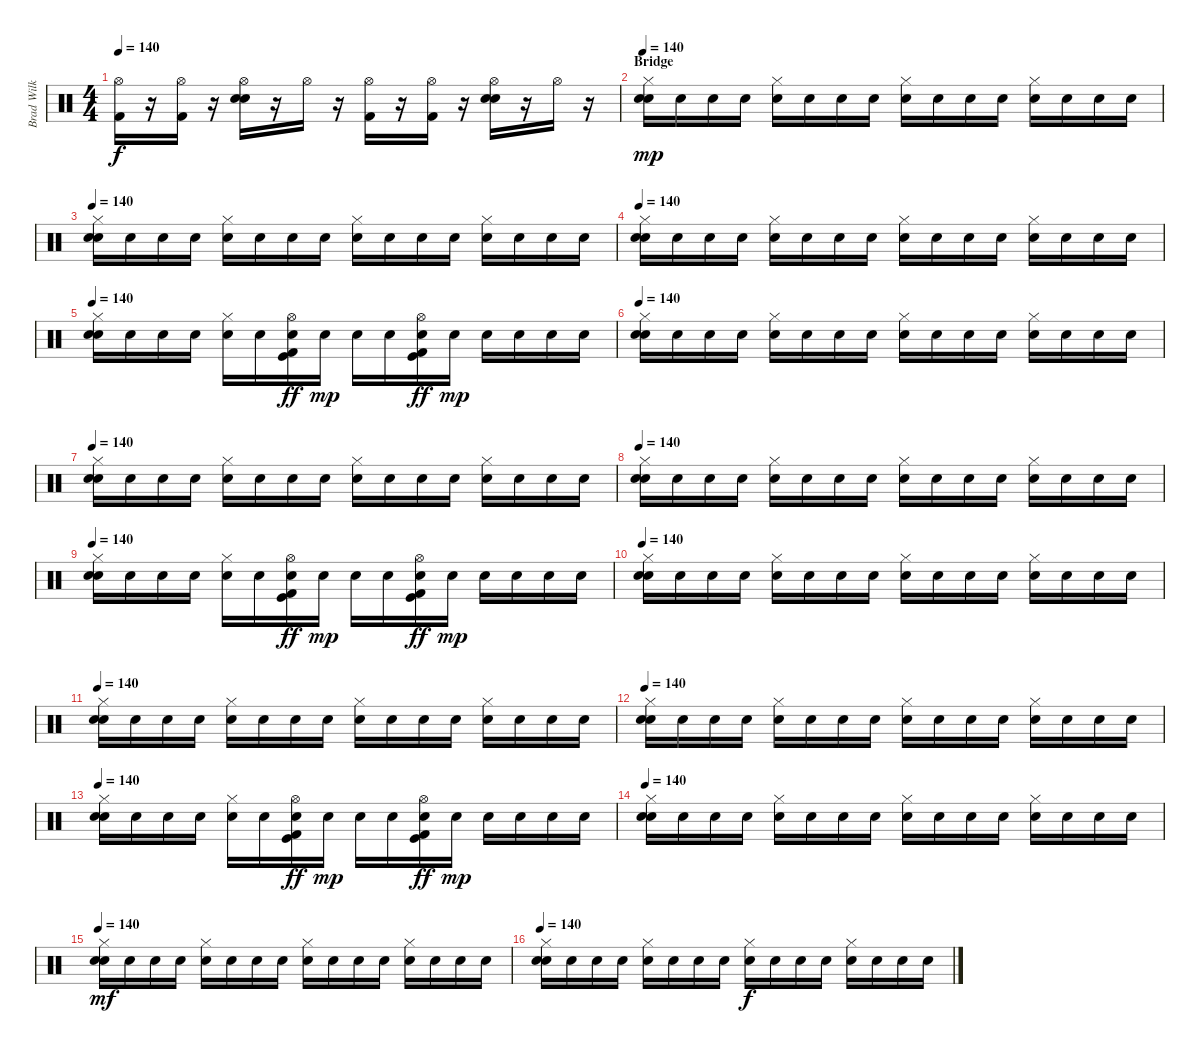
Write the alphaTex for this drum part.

\track ("Brad Wilk" "Brad Wilk") {instrument percussion}
\staff {score}
\articulation defaults
\ts (4 4)
\tempo 140
\clef neutral
\ks c
("Hi-Hat (open)" "Kick (hit) 2").16{dy f} r.16 ("Hi-Hat (open)" "Kick (hit) 2").16 r.16 ("Hi-Hat (open)" "Electric Snare (hit)" "Snare (hit) 2").16 r.16 "Hi-Hat (open)".16 r.16 ("Hi-Hat (open)" "Kick (hit) 2").16 r.16 ("Hi-Hat (open)" "Kick (hit) 2").16 r.16 ("Hi-Hat (open)" "Electric Snare (hit)" "Snare (hit) 2").16 r.16 "Hi-Hat (open)".16 r.16 |
\section ("" "Bridge")
\tempo 140
("Hi-Hat (closed)" "Snare (hit) 2" "Electric Snare (hit)").16{dy mp} "Snare (hit) 2".16 "Snare (hit) 2".16 "Snare (hit) 2".16 ("Hi-Hat (closed)" "Snare (hit) 2").16 "Snare (hit) 2".16 "Snare (hit) 2".16 "Snare (hit) 2".16 ("Hi-Hat (closed)" "Snare (hit) 2").16 "Snare (hit) 2".16 "Snare (hit) 2".16 "Snare (hit) 2".16 ("Hi-Hat (closed)" "Snare (hit) 2").16 "Snare (hit) 2".16 "Snare (hit) 2".16 "Snare (hit) 2".16 |
\tempo 140
("Hi-Hat (closed)" "Snare (hit) 2" "Electric Snare (hit)").16 "Snare (hit) 2".16 "Snare (hit) 2".16 "Snare (hit) 2".16 ("Hi-Hat (closed)" "Snare (hit) 2").16 "Snare (hit) 2".16 "Snare (hit) 2".16 "Snare (hit) 2".16 ("Hi-Hat (closed)" "Snare (hit) 2").16 "Snare (hit) 2".16 "Snare (hit) 2".16 "Snare (hit) 2".16 ("Hi-Hat (closed)" "Snare (hit) 2").16 "Snare (hit) 2".16 "Snare (hit) 2".16 "Snare (hit) 2".16 |
\tempo 140
("Hi-Hat (closed)" "Snare (hit) 2" "Electric Snare (hit)").16 "Snare (hit) 2".16 "Snare (hit) 2".16 "Snare (hit) 2".16 ("Hi-Hat (closed)" "Snare (hit) 2").16 "Snare (hit) 2".16 "Snare (hit) 2".16 "Snare (hit) 2".16 ("Hi-Hat (closed)" "Snare (hit) 2").16 "Snare (hit) 2".16 "Snare (hit) 2".16 "Snare (hit) 2".16 ("Hi-Hat (closed)" "Snare (hit) 2").16 "Snare (hit) 2".16 "Snare (hit) 2".16 "Snare (hit) 2".16 |
\tempo 140
("Hi-Hat (closed)" "Snare (hit) 2" "Electric Snare (hit)").16 "Snare (hit) 2".16 "Snare (hit) 2".16 "Snare (hit) 2".16 ("Hi-Hat (closed)" "Snare (hit) 2").16 "Snare (hit) 2".16 ("Hi-Hat (open)" "Snare (hit) 2" "Kick (hit) 2" "Kick (hit)").16{dy ff} "Snare (hit) 2".16{dy mp} "Snare (hit) 2".16 "Snare (hit) 2".16 ("Hi-Hat (open)" "Snare (hit) 2" "Kick (hit)" "Kick (hit) 2").16{dy ff} "Snare (hit) 2".16{dy mp} "Snare (hit) 2".16 "Snare (hit) 2".16 "Snare (hit) 2".16 "Snare (hit) 2".16 |
\tempo 140
("Hi-Hat (closed)" "Snare (hit) 2" "Electric Snare (hit)").16 "Snare (hit) 2".16 "Snare (hit) 2".16 "Snare (hit) 2".16 ("Hi-Hat (closed)" "Snare (hit) 2").16 "Snare (hit) 2".16 "Snare (hit) 2".16 "Snare (hit) 2".16 ("Hi-Hat (closed)" "Snare (hit) 2").16 "Snare (hit) 2".16 "Snare (hit) 2".16 "Snare (hit) 2".16 ("Hi-Hat (closed)" "Snare (hit) 2").16 "Snare (hit) 2".16 "Snare (hit) 2".16 "Snare (hit) 2".16 |
\tempo 140
("Hi-Hat (closed)" "Snare (hit) 2" "Electric Snare (hit)").16 "Snare (hit) 2".16 "Snare (hit) 2".16 "Snare (hit) 2".16 ("Hi-Hat (closed)" "Snare (hit) 2").16 "Snare (hit) 2".16 "Snare (hit) 2".16 "Snare (hit) 2".16 ("Hi-Hat (closed)" "Snare (hit) 2").16 "Snare (hit) 2".16 "Snare (hit) 2".16 "Snare (hit) 2".16 ("Hi-Hat (closed)" "Snare (hit) 2").16 "Snare (hit) 2".16 "Snare (hit) 2".16 "Snare (hit) 2".16 |
\tempo 140
("Hi-Hat (closed)" "Snare (hit) 2" "Electric Snare (hit)").16 "Snare (hit) 2".16 "Snare (hit) 2".16 "Snare (hit) 2".16 ("Hi-Hat (closed)" "Snare (hit) 2").16 "Snare (hit) 2".16 "Snare (hit) 2".16 "Snare (hit) 2".16 ("Hi-Hat (closed)" "Snare (hit) 2").16 "Snare (hit) 2".16 "Snare (hit) 2".16 "Snare (hit) 2".16 ("Hi-Hat (closed)" "Snare (hit) 2").16 "Snare (hit) 2".16 "Snare (hit) 2".16 "Snare (hit) 2".16 |
\tempo 140
("Hi-Hat (closed)" "Snare (hit) 2" "Electric Snare (hit)").16 "Snare (hit) 2".16 "Snare (hit) 2".16 "Snare (hit) 2".16 ("Hi-Hat (closed)" "Snare (hit) 2").16 "Snare (hit) 2".16 ("Hi-Hat (open)" "Snare (hit) 2" "Kick (hit) 2" "Kick (hit)").16{dy ff} "Snare (hit) 2".16{dy mp} "Snare (hit) 2".16 "Snare (hit) 2".16 ("Hi-Hat (open)" "Snare (hit) 2" "Kick (hit)" "Kick (hit) 2").16{dy ff} "Snare (hit) 2".16{dy mp} "Snare (hit) 2".16 "Snare (hit) 2".16 "Snare (hit) 2".16 "Snare (hit) 2".16 |
\tempo 140
("Hi-Hat (closed)" "Snare (hit) 2" "Electric Snare (hit)").16 "Snare (hit) 2".16 "Snare (hit) 2".16 "Snare (hit) 2".16 ("Hi-Hat (closed)" "Snare (hit) 2").16 "Snare (hit) 2".16 "Snare (hit) 2".16 "Snare (hit) 2".16 ("Hi-Hat (closed)" "Snare (hit) 2").16 "Snare (hit) 2".16 "Snare (hit) 2".16 "Snare (hit) 2".16 ("Hi-Hat (closed)" "Snare (hit) 2").16 "Snare (hit) 2".16 "Snare (hit) 2".16 "Snare (hit) 2".16 |
\tempo 140
("Hi-Hat (closed)" "Snare (hit) 2" "Electric Snare (hit)").16 "Snare (hit) 2".16 "Snare (hit) 2".16 "Snare (hit) 2".16 ("Hi-Hat (closed)" "Snare (hit) 2").16 "Snare (hit) 2".16 "Snare (hit) 2".16 "Snare (hit) 2".16 ("Hi-Hat (closed)" "Snare (hit) 2").16 "Snare (hit) 2".16 "Snare (hit) 2".16 "Snare (hit) 2".16 ("Hi-Hat (closed)" "Snare (hit) 2").16 "Snare (hit) 2".16 "Snare (hit) 2".16 "Snare (hit) 2".16 |
\tempo 140
("Hi-Hat (closed)" "Snare (hit) 2" "Electric Snare (hit)").16 "Snare (hit) 2".16 "Snare (hit) 2".16 "Snare (hit) 2".16 ("Hi-Hat (closed)" "Snare (hit) 2").16 "Snare (hit) 2".16 "Snare (hit) 2".16 "Snare (hit) 2".16 ("Hi-Hat (closed)" "Snare (hit) 2").16 "Snare (hit) 2".16 "Snare (hit) 2".16 "Snare (hit) 2".16 ("Hi-Hat (closed)" "Snare (hit) 2").16 "Snare (hit) 2".16 "Snare (hit) 2".16 "Snare (hit) 2".16 |
\tempo 140
("Hi-Hat (closed)" "Snare (hit) 2" "Electric Snare (hit)").16 "Snare (hit) 2".16 "Snare (hit) 2".16 "Snare (hit) 2".16 ("Hi-Hat (closed)" "Snare (hit) 2").16 "Snare (hit) 2".16 ("Hi-Hat (open)" "Snare (hit) 2" "Kick (hit) 2" "Kick (hit)").16{dy ff} "Snare (hit) 2".16{dy mp} "Snare (hit) 2".16 "Snare (hit) 2".16 ("Hi-Hat (open)" "Snare (hit) 2" "Kick (hit)" "Kick (hit) 2").16{dy ff} "Snare (hit) 2".16{dy mp} "Snare (hit) 2".16 "Snare (hit) 2".16 "Snare (hit) 2".16 "Snare (hit) 2".16 |
\tempo 140
("Hi-Hat (closed)" "Snare (hit) 2" "Electric Snare (hit)").16 "Snare (hit) 2".16 "Snare (hit) 2".16 "Snare (hit) 2".16 ("Hi-Hat (closed)" "Snare (hit) 2").16 "Snare (hit) 2".16 "Snare (hit) 2".16 "Snare (hit) 2".16 ("Hi-Hat (closed)" "Snare (hit) 2").16 "Snare (hit) 2".16 "Snare (hit) 2".16 "Snare (hit) 2".16 ("Hi-Hat (closed)" "Snare (hit) 2").16 "Snare (hit) 2".16 "Snare (hit) 2".16 "Snare (hit) 2".16 |
\tempo 140
("Hi-Hat (closed)" "Snare (hit) 2" "Electric Snare (hit)").16{dy mf} "Snare (hit) 2".16 "Snare (hit) 2".16 "Snare (hit) 2".16 ("Hi-Hat (closed)" "Snare (hit) 2").16 "Snare (hit) 2".16 "Snare (hit) 2".16 "Snare (hit) 2".16 ("Hi-Hat (closed)" "Snare (hit) 2").16 "Snare (hit) 2".16 "Snare (hit) 2".16 "Snare (hit) 2".16 ("Hi-Hat (closed)" "Snare (hit) 2").16 "Snare (hit) 2".16 "Snare (hit) 2".16 "Snare (hit) 2".16 |
\tempo 140
("Hi-Hat (closed)" "Snare (hit) 2" "Electric Snare (hit)").16 "Snare (hit) 2".16 "Snare (hit) 2".16 "Snare (hit) 2".16 ("Hi-Hat (closed)" "Snare (hit) 2").16 "Snare (hit) 2".16 "Snare (hit) 2".16 "Snare (hit) 2".16 ("Hi-Hat (closed)" "Snare (hit) 2").16{dy f} "Snare (hit) 2".16 "Snare (hit) 2".16 "Snare (hit) 2".16 ("Hi-Hat (closed)" "Snare (hit) 2").16 "Snare (hit) 2".16 "Snare (hit) 2".16 "Snare (hit) 2".16
